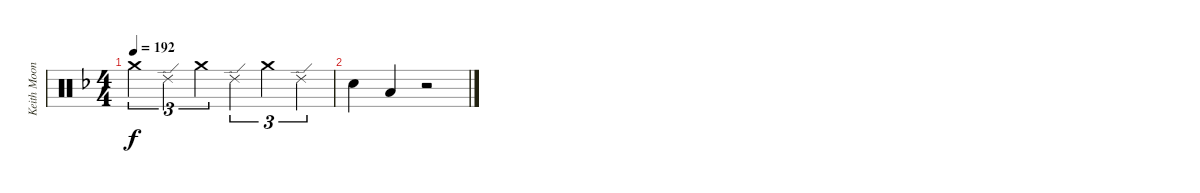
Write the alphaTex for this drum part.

\track ("Keith Moon - Drums" "Keith Moon") {instrument percussion}
\staff {score}
\articulation defaults
\ts (4 4)
\tempo 192
\clef neutral
\ks f "Crash medium (hit)".4{tu (3 2) dy f} "Ride (edge) 2".4{tu (3 2)} "Crash medium (hit)".4{tu (3 2)} "Ride (edge) 2".4{tu (3 2)} "Crash medium (hit)".4{tu (3 2)} "Ride (edge) 2".4{tu (3 2)}
|
"Electric Snare (hit)".4 "Low Floor Tom (hit)".4 r.2
